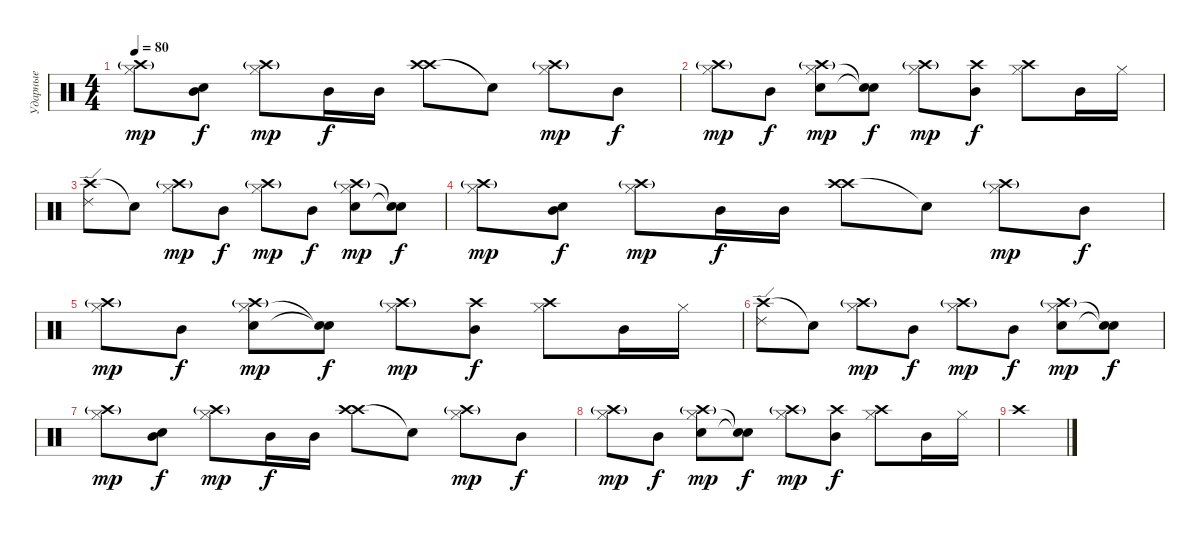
\track ("Ударные" "Ударные") {instrument percussion}
\staff {score}
\articulation defaults
\ts (4 4)
\tempo 80
\clef neutral
\ks c
("Hi-Hat (closed)" "Crash high (hit)"{g}).8{dy mp} ("Mid Tom (hit)" "Electric Snare (hit)").8{dy f} ("Hi-Hat (closed)" "Crash high (hit)"{g}).8{dy mp} "Mid Tom (hit)".16{dy f} "Mid Tom (hit)".16 ("Crash high (hit)" "Crash high (hit)").8 "Snare (hit)"{t}.8 ("Hi-Hat (closed)" "Crash high (hit)"{g}).8{dy mp} "Mid Tom (hit)".8{dy f} |
("Hi-Hat (closed)" "Crash high (hit)"{g}).8{dy mp} "Mid Tom (hit)".8{dy f} ("Electric Snare (hit)" "Hi-Hat (closed)" "Crash high (hit)"{g}).8{dy mp} ("Snare (hit)"{t} "Snare (hit)"{t}).8{dy f} ("Hi-Hat (closed)" "Crash high (hit)"{g}).8{dy mp} ("Mid Tom (hit)" "Crash high (hit)").8{dy f} ("Hi-Hat (closed)" "Crash high (hit)").8 "Mid Tom (hit)".16 "Hi-Hat (closed)".16 |
("Crash high (hit)" "Ride (edge) 2").8 "Snare (hit)"{t}.8 ("Hi-Hat (closed)" "Crash high (hit)"{g}).8{dy mp} "Mid Tom (hit)".8{dy f} ("Hi-Hat (closed)" "Crash high (hit)"{g}).8{dy mp} "Mid Tom (hit)".8{dy f} ("Electric Snare (hit)" "Hi-Hat (closed)" "Crash high (hit)"{g}).8{dy mp} ("Snare (hit)"{t} "Snare (hit)"{t}).8{dy f} |
("Hi-Hat (closed)" "Crash high (hit)"{g}).8{dy mp} ("Mid Tom (hit)" "Electric Snare (hit)").8{dy f} ("Hi-Hat (closed)" "Crash high (hit)"{g}).8{dy mp} "Mid Tom (hit)".16{dy f} "Mid Tom (hit)".16 ("Crash high (hit)" "Crash high (hit)").8 "Snare (hit)"{t}.8 ("Hi-Hat (closed)" "Crash high (hit)"{g}).8{dy mp} "Mid Tom (hit)".8{dy f} |
("Hi-Hat (closed)" "Crash high (hit)"{g}).8{dy mp} "Mid Tom (hit)".8{dy f} ("Electric Snare (hit)" "Hi-Hat (closed)" "Crash high (hit)"{g}).8{dy mp} ("Snare (hit)"{t} "Snare (hit)"{t}).8{dy f} ("Hi-Hat (closed)" "Crash high (hit)"{g}).8{dy mp} ("Mid Tom (hit)" "Crash high (hit)").8{dy f} ("Hi-Hat (closed)" "Crash high (hit)").8 "Mid Tom (hit)".16 "Hi-Hat (closed)".16 |
("Crash high (hit)" "Ride (edge) 2").8 "Snare (hit)"{t}.8 ("Hi-Hat (closed)" "Crash high (hit)"{g}).8{dy mp} "Mid Tom (hit)".8{dy f} ("Hi-Hat (closed)" "Crash high (hit)"{g}).8{dy mp} "Mid Tom (hit)".8{dy f} ("Electric Snare (hit)" "Hi-Hat (closed)" "Crash high (hit)"{g}).8{dy mp} ("Snare (hit)"{t} "Snare (hit)"{t}).8{dy f} |
("Hi-Hat (closed)" "Crash high (hit)"{g}).8{dy mp} ("Mid Tom (hit)" "Electric Snare (hit)").8{dy f} ("Hi-Hat (closed)" "Crash high (hit)"{g}).8{dy mp} "Mid Tom (hit)".16{dy f} "Mid Tom (hit)".16 ("Crash high (hit)" "Crash high (hit)").8 "Snare (hit)"{t}.8 ("Hi-Hat (closed)" "Crash high (hit)"{g}).8{dy mp} "Mid Tom (hit)".8{dy f} |
("Hi-Hat (closed)" "Crash high (hit)"{g}).8{dy mp} "Mid Tom (hit)".8{dy f} ("Electric Snare (hit)" "Hi-Hat (closed)" "Crash high (hit)"{g}).8{dy mp} ("Snare (hit)"{t} "Snare (hit)"{t}).8{dy f} ("Hi-Hat (closed)" "Crash high (hit)"{g}).8{dy mp} ("Mid Tom (hit)" "Crash high (hit)").8{dy f} ("Hi-Hat (closed)" "Crash high (hit)").8 "Mid Tom (hit)".16 "Hi-Hat (closed)".16 |
"Crash high (hit)".1
